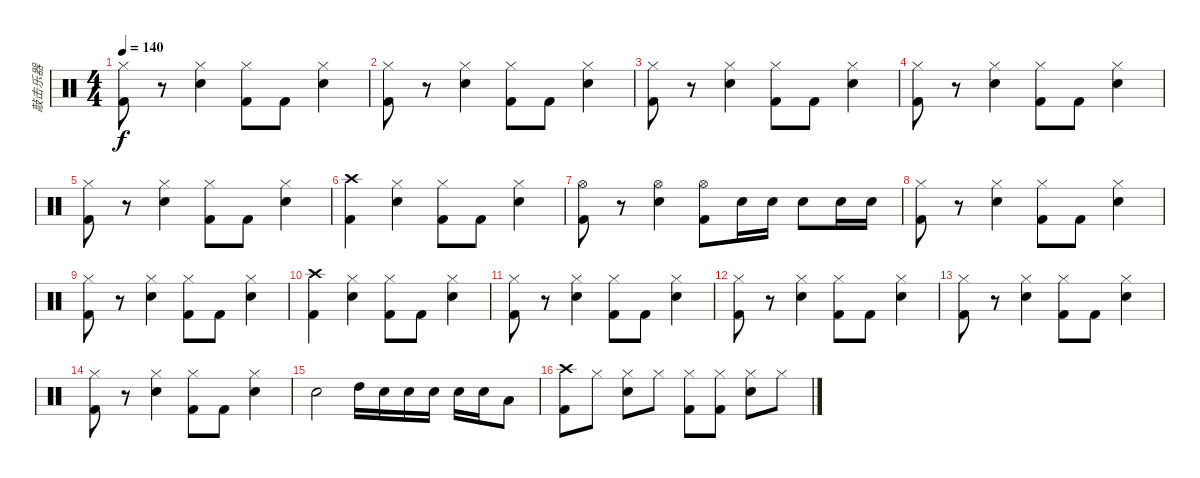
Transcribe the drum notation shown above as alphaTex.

\track ("敲击乐器" "敲击乐器") {instrument percussion}
\staff {score}
\articulation defaults
\ts (4 4)
\tempo 140
\clef neutral
\ks c
("Hi-Hat (closed)" "Kick (hit) 2").8{dy f} r.8 ("Hi-Hat (closed)" "Electric Snare (hit)").4 ("Hi-Hat (closed)" "Kick (hit) 2").8 "Kick (hit) 2".8 ("Hi-Hat (closed)" "Electric Snare (hit)").4 |
("Hi-Hat (closed)" "Kick (hit) 2").8 r.8 ("Hi-Hat (closed)" "Electric Snare (hit)").4 ("Hi-Hat (closed)" "Kick (hit) 2").8 "Kick (hit) 2".8 ("Hi-Hat (closed)" "Electric Snare (hit)").4 |
("Hi-Hat (closed)" "Kick (hit) 2").8 r.8 ("Hi-Hat (closed)" "Electric Snare (hit)").4 ("Hi-Hat (closed)" "Kick (hit) 2").8 "Kick (hit) 2".8 ("Hi-Hat (closed)" "Electric Snare (hit)").4 |
("Hi-Hat (closed)" "Kick (hit) 2").8 r.8 ("Hi-Hat (closed)" "Electric Snare (hit)").4 ("Hi-Hat (closed)" "Kick (hit) 2").8 "Kick (hit) 2".8 ("Hi-Hat (closed)" "Electric Snare (hit)").4 |
("Hi-Hat (closed)" "Kick (hit) 2").8 r.8 ("Hi-Hat (closed)" "Electric Snare (hit)").4 ("Hi-Hat (closed)" "Kick (hit) 2").8 "Kick (hit) 2".8 ("Hi-Hat (closed)" "Electric Snare (hit)").4 |
("Crash high (hit)" "Kick (hit) 2").4 ("Hi-Hat (closed)" "Electric Snare (hit)").4 ("Hi-Hat (closed)" "Kick (hit) 2").8 "Kick (hit) 2".8 ("Hi-Hat (closed)" "Electric Snare (hit)").4 |
("Hi-Hat (open)" "Kick (hit) 2").8 r.8 ("Hi-Hat (open)" "Electric Snare (hit)").4 ("Hi-Hat (open)" "Kick (hit) 2").8 "Electric Snare (hit)".16 "Electric Snare (hit)".16 "Electric Snare (hit)".8 "Electric Snare (hit)".16 "Electric Snare (hit)".16 |
("Hi-Hat (closed)" "Kick (hit) 2").8 r.8 ("Hi-Hat (closed)" "Electric Snare (hit)").4 ("Hi-Hat (closed)" "Kick (hit) 2").8 "Kick (hit) 2".8 ("Hi-Hat (closed)" "Electric Snare (hit)").4 |
("Hi-Hat (closed)" "Kick (hit) 2").8 r.8 ("Hi-Hat (closed)" "Electric Snare (hit)").4 ("Hi-Hat (closed)" "Kick (hit) 2").8 "Kick (hit) 2".8 ("Hi-Hat (closed)" "Electric Snare (hit)").4 |
("Crash high (hit)" "Kick (hit) 2").4 ("Hi-Hat (closed)" "Electric Snare (hit)").4 ("Hi-Hat (closed)" "Kick (hit) 2").8 "Kick (hit) 2".8 ("Hi-Hat (closed)" "Electric Snare (hit)").4 |
("Hi-Hat (closed)" "Kick (hit) 2").8 r.8 ("Hi-Hat (closed)" "Electric Snare (hit)").4 ("Hi-Hat (closed)" "Kick (hit) 2").8 "Kick (hit) 2".8 ("Hi-Hat (closed)" "Electric Snare (hit)").4 |
("Hi-Hat (closed)" "Kick (hit) 2").8 r.8 ("Hi-Hat (closed)" "Electric Snare (hit)").4 ("Hi-Hat (closed)" "Kick (hit) 2").8 "Kick (hit) 2".8 ("Hi-Hat (closed)" "Electric Snare (hit)").4 |
("Hi-Hat (closed)" "Kick (hit) 2").8 r.8 ("Hi-Hat (closed)" "Electric Snare (hit)").4 ("Hi-Hat (closed)" "Kick (hit) 2").8 "Kick (hit) 2".8 ("Hi-Hat (closed)" "Electric Snare (hit)").4 |
("Hi-Hat (closed)" "Kick (hit) 2").8 r.8 ("Hi-Hat (closed)" "Electric Snare (hit)").4 ("Hi-Hat (closed)" "Kick (hit) 2").8 "Kick (hit) 2".8 ("Hi-Hat (closed)" "Electric Snare (hit)").4 |
"Electric Snare (hit)".2 "High Tom (hit)".16 "Electric Snare (hit)".16 "Electric Snare (hit)".16 "Electric Snare (hit)".16 "Electric Snare (hit)".16 "Electric Snare (hit)".16 "Low Tom (hit)".8 |
("Crash high (hit)" "Kick (hit) 2").8 "Hi-Hat (closed)".8 ("Hi-Hat (closed)" "Electric Snare (hit)").8 "Hi-Hat (closed)".8 ("Hi-Hat (closed)" "Kick (hit) 2").8 ("Hi-Hat (closed)" "Kick (hit) 2").8 ("Hi-Hat (closed)" "Electric Snare (hit)").8 "Hi-Hat (closed)".8
